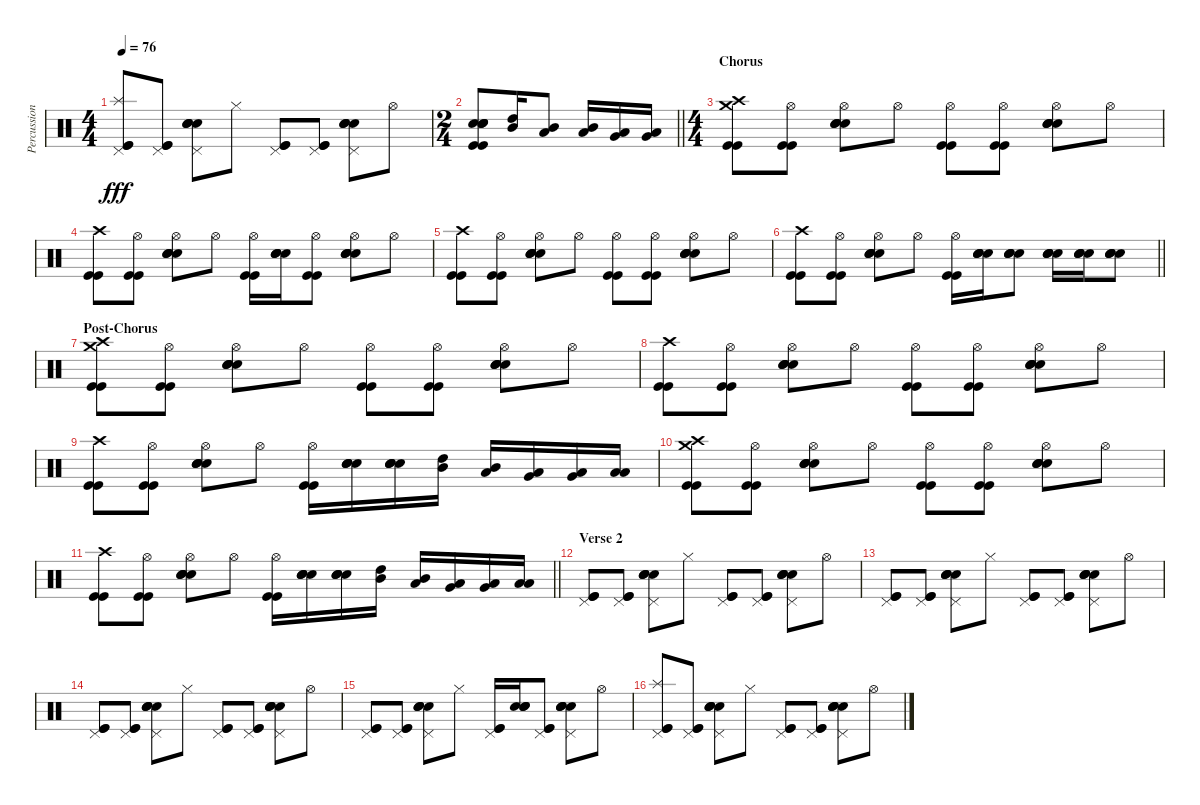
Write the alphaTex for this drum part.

\track ("Percussion" "Percussion") {instrument percussion}
\staff {score}
\articulation defaults
\ts (4 4)
\tempo 76
\clef neutral
\ks c
("Pedal Hi-Hat (hit)" "Splash (hit)" "Kick (hit)" "Kick (hit)").8{dy fff} ("Pedal Hi-Hat (hit)" "Kick (hit)" "Kick (hit)").8 ("Pedal Hi-Hat (hit)" "Electric Snare (hit)" "Snare (hit) 2" "Snare (hit) 2" "Electric Snare (hit)").8 "Hi-Hat (closed)".8 ("Pedal Hi-Hat (hit)" "Kick (hit)" "Kick (hit)").8 ("Pedal Hi-Hat (hit)" "Kick (hit)" "Kick (hit)").8 ("Pedal Hi-Hat (hit)" "Electric Snare (hit)" "Snare (hit) 2" "Snare (hit) 2" "Electric Snare (hit)").8 "Hi-Hat (open)".8 |
\ts (2 4)
\barLineRight lightlight
("Kick (hit)" "Electric Snare (hit)" "Snare (hit) 2" "Snare (hit) 2" "Electric Snare (hit)" "Kick (hit)").8 ("High Tom (hit)" "Mid Tom (hit)").16 ("Mid Tom (hit)" "Low Tom (hit)").8 ("Mid Tom (hit)" "Low Tom (hit)").16 ("Low Tom (hit)" "Very Low Tom (hit)").16 ("Very Low Tom (hit)" "Low Floor Tom (hit)").16 |
\ts (4 4)
\section ("" "Chorus")
("Crash high (hit)" "Crash medium (hit)" "Kick (hit)" "Kick (hit)").8 ("Hi-Hat (open)" "Kick (hit)" "Kick (hit)").8 ("Hi-Hat (open)" "Electric Snare (hit)" "Snare (hit) 2" "Snare (hit) 2" "Electric Snare (hit)").8 "Hi-Hat (open)".8 ("Hi-Hat (open)" "Kick (hit)" "Kick (hit)").8 ("Hi-Hat (open)" "Kick (hit)" "Kick (hit)").8 ("Hi-Hat (open)" "Electric Snare (hit)" "Snare (hit) 2" "Snare (hit) 2" "Electric Snare (hit)").8 "Hi-Hat (open)".8 |
("Crash high (hit)" "Kick (hit)" "Kick (hit)").8 ("Hi-Hat (open)" "Kick (hit)" "Kick (hit)").8 ("Hi-Hat (open)" "Electric Snare (hit)" "Snare (hit) 2" "Snare (hit) 2" "Electric Snare (hit)").8 "Hi-Hat (open)".8 ("Hi-Hat (open)" "Kick (hit)" "Kick (hit)").16 ("Electric Snare (hit)" "Snare (hit) 2" "Snare (hit) 2" "Electric Snare (hit)").16 ("Hi-Hat (open)" "Kick (hit)" "Kick (hit)").8 ("Hi-Hat (open)" "Electric Snare (hit)" "Snare (hit) 2" "Snare (hit) 2" "Electric Snare (hit)").8 "Hi-Hat (open)".8 |
("Crash high (hit)" "Kick (hit)" "Kick (hit)").8 ("Hi-Hat (open)" "Kick (hit)" "Kick (hit)").8 ("Hi-Hat (open)" "Electric Snare (hit)" "Snare (hit) 2" "Snare (hit) 2" "Electric Snare (hit)").8 "Hi-Hat (open)".8 ("Hi-Hat (open)" "Kick (hit)" "Kick (hit)").8 ("Hi-Hat (open)" "Kick (hit)" "Kick (hit)").8 ("Hi-Hat (open)" "Electric Snare (hit)" "Snare (hit) 2" "Snare (hit) 2" "Electric Snare (hit)").8 "Hi-Hat (open)".8 |
\barLineRight lightlight
("Crash high (hit)" "Kick (hit)" "Kick (hit)").8 ("Hi-Hat (open)" "Kick (hit)" "Kick (hit)").8 ("Hi-Hat (open)" "Electric Snare (hit)" "Snare (hit) 2" "Snare (hit) 2" "Electric Snare (hit)").8 "Hi-Hat (open)".8 ("Hi-Hat (open)" "Kick (hit)" "Kick (hit)").16 ("Electric Snare (hit)" "Snare (hit) 2" "Snare (hit) 2" "Electric Snare (hit)").16 ("Electric Snare (hit)" "Snare (hit) 2" "Snare (hit) 2" "Electric Snare (hit)").8 ("Electric Snare (hit)" "Snare (hit) 2" "Snare (hit) 2" "Electric Snare (hit)").16 ("Electric Snare (hit)" "Snare (hit) 2" "Snare (hit) 2" "Electric Snare (hit)").16 ("Electric Snare (hit)" "Snare (hit) 2" "Snare (hit) 2" "Electric Snare (hit)").8 |
\section ("" "Post-Chorus")
("Crash high (hit)" "Crash medium (hit)" "Kick (hit)" "Kick (hit)").8 ("Hi-Hat (open)" "Kick (hit)" "Kick (hit)").8 ("Hi-Hat (open)" "Electric Snare (hit)" "Snare (hit) 2" "Snare (hit) 2" "Electric Snare (hit)").8 "Hi-Hat (open)".8 ("Hi-Hat (open)" "Kick (hit)" "Kick (hit)").8 ("Hi-Hat (open)" "Kick (hit)" "Kick (hit)").8 ("Hi-Hat (open)" "Electric Snare (hit)" "Snare (hit) 2" "Snare (hit) 2" "Electric Snare (hit)").8 "Hi-Hat (open)".8 |
("Crash high (hit)" "Kick (hit)" "Kick (hit)").8 ("Hi-Hat (open)" "Kick (hit)" "Kick (hit)").8 ("Hi-Hat (open)" "Electric Snare (hit)" "Snare (hit) 2" "Snare (hit) 2" "Electric Snare (hit)").8 "Hi-Hat (open)".8 ("Hi-Hat (open)" "Kick (hit)" "Kick (hit)").8 ("Hi-Hat (open)" "Kick (hit)" "Kick (hit)").8 ("Hi-Hat (open)" "Electric Snare (hit)" "Snare (hit) 2" "Snare (hit) 2" "Electric Snare (hit)").8 "Hi-Hat (open)".8 |
("Crash high (hit)" "Kick (hit)" "Kick (hit)").8 ("Hi-Hat (open)" "Kick (hit)" "Kick (hit)").8 ("Hi-Hat (open)" "Electric Snare (hit)" "Snare (hit) 2" "Snare (hit) 2" "Electric Snare (hit)").8 "Hi-Hat (open)".8 ("Hi-Hat (open)" "Kick (hit)" "Kick (hit)").16 ("Electric Snare (hit)" "Snare (hit) 2" "Snare (hit) 2" "Electric Snare (hit)").16 ("Electric Snare (hit)" "Snare (hit) 2" "Snare (hit) 2" "Electric Snare (hit)").16 ("High Tom (hit)" "Mid Tom (hit)").16 ("Mid Tom (hit)" "Low Tom (hit)").16 ("Low Tom (hit)" "Very Low Tom (hit)").16 ("Very Low Tom (hit)" "Low Floor Tom (hit)").16 ("Low Floor Tom (hit)" "Low Floor Tom (hit)").16 |
("Crash high (hit)" "Crash medium (hit)" "Kick (hit)" "Kick (hit)").8 ("Hi-Hat (open)" "Kick (hit)" "Kick (hit)").8 ("Hi-Hat (open)" "Electric Snare (hit)" "Snare (hit) 2" "Snare (hit) 2" "Electric Snare (hit)").8 "Hi-Hat (open)".8 ("Hi-Hat (open)" "Kick (hit)" "Kick (hit)").8 ("Hi-Hat (open)" "Kick (hit)" "Kick (hit)").8 ("Hi-Hat (open)" "Electric Snare (hit)" "Snare (hit) 2" "Snare (hit) 2" "Electric Snare (hit)").8 "Hi-Hat (open)".8 |
\barLineRight lightlight
("Crash high (hit)" "Kick (hit)" "Kick (hit)").8 ("Hi-Hat (open)" "Kick (hit)" "Kick (hit)").8 ("Hi-Hat (open)" "Electric Snare (hit)" "Snare (hit) 2" "Snare (hit) 2" "Electric Snare (hit)").8 "Hi-Hat (open)".8 ("Hi-Hat (open)" "Kick (hit)" "Kick (hit)").16 ("Electric Snare (hit)" "Snare (hit) 2" "Snare (hit) 2" "Electric Snare (hit)").16 ("Electric Snare (hit)" "Snare (hit) 2" "Snare (hit) 2" "Electric Snare (hit)").16 ("High Tom (hit)" "Mid Tom (hit)").16 ("Mid Tom (hit)" "Low Tom (hit)").16 ("Low Tom (hit)" "Very Low Tom (hit)").16 ("Very Low Tom (hit)" "Low Floor Tom (hit)").16 ("Low Floor Tom (hit)" "Low Floor Tom (hit)").16 |
\section ("" "Verse 2")
("Pedal Hi-Hat (hit)" "Kick (hit)" "Kick (hit)").8 ("Pedal Hi-Hat (hit)" "Kick (hit)" "Kick (hit)").8 ("Pedal Hi-Hat (hit)" "Electric Snare (hit)" "Snare (hit) 2" "Snare (hit) 2" "Electric Snare (hit)").8 "Hi-Hat (closed)".8 ("Pedal Hi-Hat (hit)" "Kick (hit)" "Kick (hit)").8 ("Pedal Hi-Hat (hit)" "Kick (hit)" "Kick (hit)").8 ("Pedal Hi-Hat (hit)" "Electric Snare (hit)" "Snare (hit) 2" "Snare (hit) 2" "Electric Snare (hit)").8 "Hi-Hat (open)".8 |
("Pedal Hi-Hat (hit)" "Kick (hit)" "Kick (hit)").8 ("Pedal Hi-Hat (hit)" "Kick (hit)" "Kick (hit)").8 ("Pedal Hi-Hat (hit)" "Electric Snare (hit)" "Snare (hit) 2" "Snare (hit) 2" "Electric Snare (hit)").8 "Hi-Hat (closed)".8 ("Pedal Hi-Hat (hit)" "Kick (hit)" "Kick (hit)").8 ("Pedal Hi-Hat (hit)" "Kick (hit)" "Kick (hit)").8 ("Pedal Hi-Hat (hit)" "Electric Snare (hit)" "Snare (hit) 2" "Snare (hit) 2" "Electric Snare (hit)").8 "Hi-Hat (open)".8 |
("Pedal Hi-Hat (hit)" "Kick (hit)" "Kick (hit)").8 ("Pedal Hi-Hat (hit)" "Kick (hit)" "Kick (hit)").8 ("Pedal Hi-Hat (hit)" "Electric Snare (hit)" "Snare (hit) 2" "Snare (hit) 2" "Electric Snare (hit)").8 "Hi-Hat (closed)".8 ("Pedal Hi-Hat (hit)" "Kick (hit)" "Kick (hit)").8 ("Pedal Hi-Hat (hit)" "Kick (hit)" "Kick (hit)").8 ("Pedal Hi-Hat (hit)" "Electric Snare (hit)" "Snare (hit) 2" "Snare (hit) 2" "Electric Snare (hit)").8 "Hi-Hat (open)".8 |
("Pedal Hi-Hat (hit)" "Kick (hit)" "Kick (hit)").8 ("Pedal Hi-Hat (hit)" "Kick (hit)" "Kick (hit)").8 ("Pedal Hi-Hat (hit)" "Electric Snare (hit)" "Snare (hit) 2" "Snare (hit) 2" "Electric Snare (hit)").8 "Hi-Hat (closed)".8 ("Pedal Hi-Hat (hit)" "Kick (hit)" "Kick (hit)").16 ("Electric Snare (hit)" "Snare (hit) 2" "Snare (hit) 2" "Electric Snare (hit)").16 ("Pedal Hi-Hat (hit)" "Kick (hit)" "Kick (hit)").8 ("Pedal Hi-Hat (hit)" "Electric Snare (hit)" "Snare (hit) 2" "Snare (hit) 2" "Electric Snare (hit)").8 "Hi-Hat (open)".8 |
("Pedal Hi-Hat (hit)" "Splash (hit)" "Kick (hit)" "Kick (hit)").8 ("Pedal Hi-Hat (hit)" "Kick (hit)" "Kick (hit)").8 ("Pedal Hi-Hat (hit)" "Electric Snare (hit)" "Snare (hit) 2" "Snare (hit) 2" "Electric Snare (hit)").8 "Hi-Hat (closed)".8 ("Pedal Hi-Hat (hit)" "Kick (hit)" "Kick (hit)").8 ("Pedal Hi-Hat (hit)" "Kick (hit)" "Kick (hit)").8 ("Pedal Hi-Hat (hit)" "Electric Snare (hit)" "Snare (hit) 2" "Snare (hit) 2" "Electric Snare (hit)").8 "Hi-Hat (open)".8
